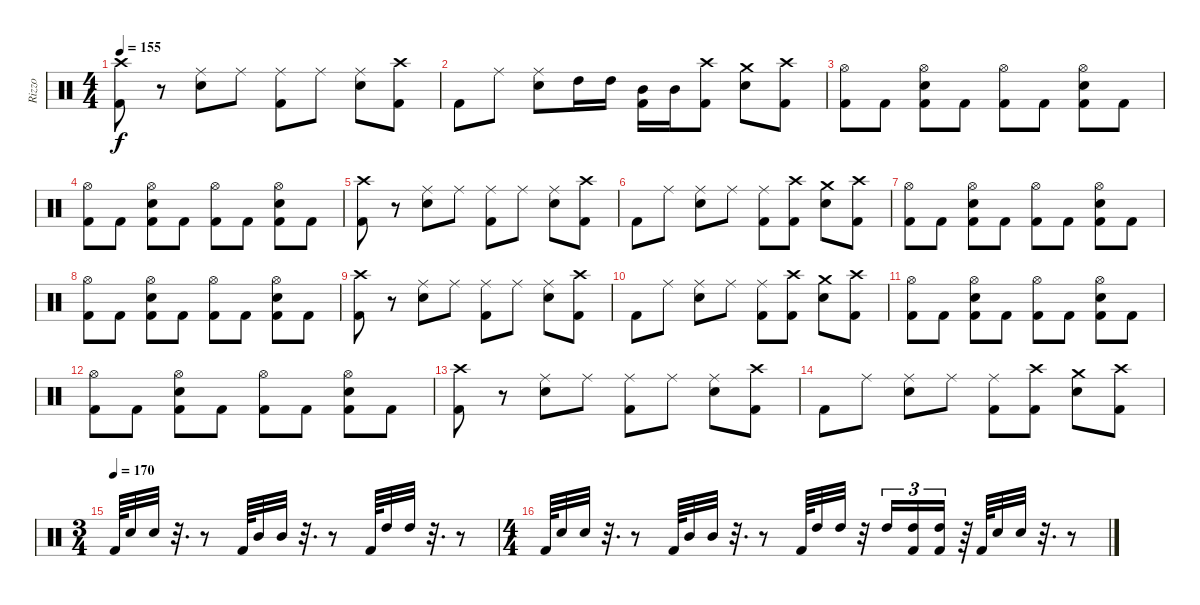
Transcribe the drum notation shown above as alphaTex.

\track ("Rizzo" "Rizzo") {instrument percussion}
\staff {score}
\articulation defaults
\ts (4 4)
\tempo 155
\clef neutral
\ks c
("Crash high (hit)" "Kick (hit) 2").8{dy f} r.8 ("Ride (middle)" "Electric Snare (hit)").8 "Ride (middle)".8 ("Ride (middle)" "Kick (hit) 2").8 "Ride (middle)".8 ("Ride (middle)" "Electric Snare (hit)").8 ("Crash high (hit)" "Kick (hit) 2").8 |
"Kick (hit) 2".8 "Ride (middle)".8 ("Ride (middle)" "Electric Snare (hit)").8 "High Tom (hit)".16 "High Tom (hit)".16 ("Mid Tom (hit)" "Kick (hit) 2").16 "Mid Tom (hit)".16 ("Crash high (hit)" "Kick (hit) 2").8 ("Crash medium (hit)" "Electric Snare (hit)").8 ("Crash high (hit)" "Kick (hit) 2").8 |
("Hi-Hat (open)" "Kick (hit) 2").8 "Kick (hit) 2".8 ("Hi-Hat (open)" "Electric Snare (hit)" "Kick (hit) 2").8 "Kick (hit) 2".8 ("Hi-Hat (open)" "Kick (hit) 2").8 "Kick (hit) 2".8 ("Hi-Hat (open)" "Electric Snare (hit)" "Kick (hit) 2").8 "Kick (hit) 2".8 |
("Hi-Hat (open)" "Kick (hit) 2").8 "Kick (hit) 2".8 ("Hi-Hat (open)" "Electric Snare (hit)" "Kick (hit) 2").8 "Kick (hit) 2".8 ("Hi-Hat (open)" "Kick (hit) 2").8 "Kick (hit) 2".8 ("Hi-Hat (open)" "Electric Snare (hit)" "Kick (hit) 2").8 "Kick (hit) 2".8 |
("Crash high (hit)" "Kick (hit) 2").8 r.8 ("Ride (middle)" "Electric Snare (hit)").8 "Ride (middle)".8 ("Ride (middle)" "Kick (hit) 2").8 "Ride (middle)".8 ("Ride (middle)" "Electric Snare (hit)").8 ("Crash high (hit)" "Kick (hit) 2").8 |
"Kick (hit) 2".8 "Ride (middle)".8 ("Ride (middle)" "Electric Snare (hit)").8 "Ride (middle)".8 ("Ride (middle)" "Kick (hit) 2").8 ("Crash high (hit)" "Kick (hit) 2").8 ("Crash medium (hit)" "Electric Snare (hit)").8 ("Crash high (hit)" "Kick (hit) 2").8 |
("Hi-Hat (open)" "Kick (hit) 2").8 "Kick (hit) 2".8 ("Hi-Hat (open)" "Electric Snare (hit)" "Kick (hit) 2").8 "Kick (hit) 2".8 ("Hi-Hat (open)" "Kick (hit) 2").8 "Kick (hit) 2".8 ("Hi-Hat (open)" "Electric Snare (hit)" "Kick (hit) 2").8 "Kick (hit) 2".8 |
("Hi-Hat (open)" "Kick (hit) 2").8 "Kick (hit) 2".8 ("Hi-Hat (open)" "Electric Snare (hit)" "Kick (hit) 2").8 "Kick (hit) 2".8 ("Hi-Hat (open)" "Kick (hit) 2").8 "Kick (hit) 2".8 ("Hi-Hat (open)" "Electric Snare (hit)" "Kick (hit) 2").8 "Kick (hit) 2".8 |
("Crash high (hit)" "Kick (hit) 2").8 r.8 ("Ride (middle)" "Electric Snare (hit)").8 "Ride (middle)".8 ("Ride (middle)" "Kick (hit) 2").8 "Ride (middle)".8 ("Ride (middle)" "Electric Snare (hit)").8 ("Crash high (hit)" "Kick (hit) 2").8 |
"Kick (hit) 2".8 "Ride (middle)".8 ("Ride (middle)" "Electric Snare (hit)").8 "Ride (middle)".8 ("Ride (middle)" "Kick (hit) 2").8 ("Crash high (hit)" "Kick (hit) 2").8 ("Crash medium (hit)" "Electric Snare (hit)").8 ("Crash high (hit)" "Kick (hit) 2").8 |
("Hi-Hat (open)" "Kick (hit) 2").8 "Kick (hit) 2".8 ("Hi-Hat (open)" "Electric Snare (hit)" "Kick (hit) 2").8 "Kick (hit) 2".8 ("Hi-Hat (open)" "Kick (hit) 2").8 "Kick (hit) 2".8 ("Hi-Hat (open)" "Electric Snare (hit)" "Kick (hit) 2").8 "Kick (hit) 2".8 |
("Hi-Hat (open)" "Kick (hit) 2").8 "Kick (hit) 2".8 ("Hi-Hat (open)" "Electric Snare (hit)" "Kick (hit) 2").8 "Kick (hit) 2".8 ("Hi-Hat (open)" "Kick (hit) 2").8 "Kick (hit) 2".8 ("Hi-Hat (open)" "Electric Snare (hit)" "Kick (hit) 2").8 "Kick (hit) 2".8 |
("Crash high (hit)" "Kick (hit) 2").8 r.8 ("Ride (middle)" "Electric Snare (hit)").8 "Ride (middle)".8 ("Ride (middle)" "Kick (hit) 2").8 "Ride (middle)".8 ("Ride (middle)" "Electric Snare (hit)").8 ("Crash high (hit)" "Kick (hit) 2").8 |
"Kick (hit) 2".8 "Ride (middle)".8 ("Ride (middle)" "Electric Snare (hit)").8 "Ride (middle)".8 ("Ride (middle)" "Kick (hit) 2").8 ("Crash high (hit)" "Kick (hit) 2").8 ("Crash medium (hit)" "Electric Snare (hit)").8 ("Crash high (hit)" "Kick (hit) 2").8 |
\ts (3 4)
\tempo (170)
"Kick (hit) 2".64 "Electric Snare (hit)".32 "Electric Snare (hit)".32 r.32{d} r.8 "Kick (hit) 2".64 "Mid Tom (hit)".32 "Mid Tom (hit)".32 r.32{d} r.8 "Kick (hit) 2".64 "High Tom (hit)".32 "High Tom (hit)".32 r.32{d} r.8 |
\ts (4 4)
"Kick (hit) 2".64 "Electric Snare (hit)".32 "Electric Snare (hit)".32 r.32{d} r.8 "Kick (hit) 2".64 "Mid Tom (hit)".32 "Mid Tom (hit)".32 r.32{d} r.8 "Kick (hit) 2".64 "High Tom (hit)".32 "High Tom (hit)".32 r.32 "High Tom (hit)".16{tu (3 2)} ("High Tom (hit)" "Kick (hit) 2").16{tu (3 2)} ("High Tom (hit)" "Kick (hit) 2").16{tu (3 2)} r.64 "Kick (hit) 2".64 "Electric Snare (hit)".32 "Electric Snare (hit)".32 r.32{d} r.8
